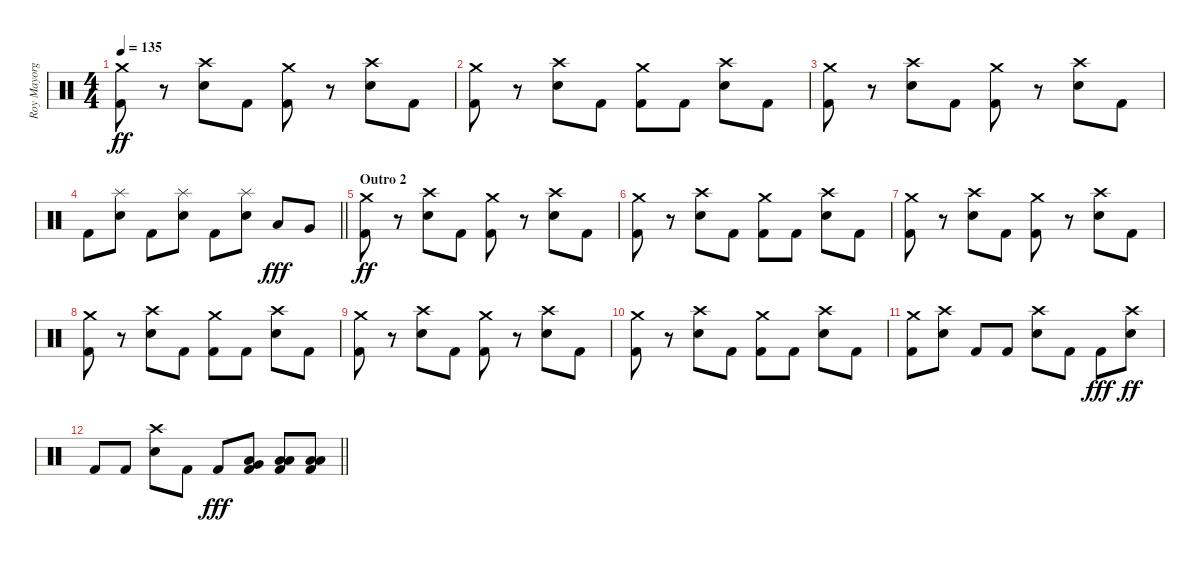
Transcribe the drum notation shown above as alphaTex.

\track ("Roy Mayorga" "Roy Mayorg") {instrument percussion}
\staff {score}
\articulation defaults
\ts (4 4)
\tempo 135
\clef neutral
\ks c
("Crash medium (hit)" "Kick (hit) 2").8{dy ff} r.8 ("Crash high (hit)" "Electric Snare (hit)").8 "Kick (hit) 2".8 ("Crash medium (hit)" "Kick (hit) 2").8 r.8 ("Crash high (hit)" "Electric Snare (hit)").8 "Kick (hit) 2".8 |
("Crash medium (hit)" "Kick (hit) 2").8 r.8 ("Crash high (hit)" "Electric Snare (hit)").8 "Kick (hit) 2".8 ("Crash medium (hit)" "Kick (hit) 2").8 "Kick (hit) 2".8 ("Crash high (hit)" "Electric Snare (hit)").8 "Kick (hit) 2".8 |
("Crash medium (hit)" "Kick (hit) 2").8 r.8 ("Crash high (hit)" "Electric Snare (hit)").8 "Kick (hit) 2".8 ("Crash medium (hit)" "Kick (hit) 2").8 r.8 ("Crash high (hit)" "Electric Snare (hit)").8 "Kick (hit) 2".8 |
\barLineRight lightlight "Kick (hit) 2".8
("Splash (hit)" "Electric Snare (hit)").8 "Kick (hit) 2".8 ("Splash (hit)" "Electric Snare (hit)").8 "Kick (hit) 2".8 ("Splash (hit)" "Electric Snare (hit)").8 "Low Tom (hit)".8{dy fff} "Very Low Tom (hit)".8 |
\section ("" "Outro 2")
("Crash medium (hit)" "Kick (hit) 2").8{dy ff} r.8 ("Crash high (hit)" "Electric Snare (hit)").8 "Kick (hit) 2".8 ("Crash medium (hit)" "Kick (hit) 2").8 r.8 ("Crash high (hit)" "Electric Snare (hit)").8 "Kick (hit) 2".8 |
("Crash medium (hit)" "Kick (hit) 2").8 r.8 ("Crash high (hit)" "Electric Snare (hit)").8 "Kick (hit) 2".8 ("Crash medium (hit)" "Kick (hit) 2").8 "Kick (hit) 2".8 ("Crash high (hit)" "Electric Snare (hit)").8 "Kick (hit) 2".8 |
("Crash medium (hit)" "Kick (hit) 2").8 r.8 ("Crash high (hit)" "Electric Snare (hit)").8 "Kick (hit) 2".8 ("Crash medium (hit)" "Kick (hit) 2").8 r.8 ("Crash high (hit)" "Electric Snare (hit)").8 "Kick (hit) 2".8 |
("Crash medium (hit)" "Kick (hit) 2").8 r.8 ("Crash high (hit)" "Electric Snare (hit)").8 "Kick (hit) 2".8 ("Crash medium (hit)" "Kick (hit) 2").8 "Kick (hit) 2".8 ("Crash high (hit)" "Electric Snare (hit)").8 "Kick (hit) 2".8 |
("Crash medium (hit)" "Kick (hit) 2").8 r.8 ("Crash high (hit)" "Electric Snare (hit)").8 "Kick (hit) 2".8 ("Crash medium (hit)" "Kick (hit) 2").8 r.8 ("Crash high (hit)" "Electric Snare (hit)").8 "Kick (hit) 2".8 |
("Crash medium (hit)" "Kick (hit) 2").8 r.8 ("Crash high (hit)" "Electric Snare (hit)").8 "Kick (hit) 2".8 ("Crash medium (hit)" "Kick (hit) 2").8 "Kick (hit) 2".8 ("Crash high (hit)" "Electric Snare (hit)").8 "Kick (hit) 2".8 |
("Crash medium (hit)" "Kick (hit) 2").8 ("Crash high (hit)" "Electric Snare (hit)").8 "Kick (hit) 2".8 "Kick (hit) 2".8 ("Crash high (hit)" "Electric Snare (hit)").8 "Kick (hit) 2".8 "Kick (hit) 2".8{dy fff} ("Crash high (hit)" "Electric Snare (hit)").8{dy ff} |
\barLineRight lightlight "Kick (hit) 2".8 "Kick (hit) 2".8
("Crash high (hit)" "Electric Snare (hit)").8 "Kick (hit) 2".8 "Kick (hit) 2".8{dy fff} ("Very Low Tom (hit)" "Low Floor Tom (hit)" "Kick (hit) 2").8 ("Low Floor Tom (hit)" "Low Floor Tom (hit)" "Kick (hit) 2").8 ("Low Floor Tom (hit)" "Low Floor Tom (hit)" "Kick (hit) 2").8
